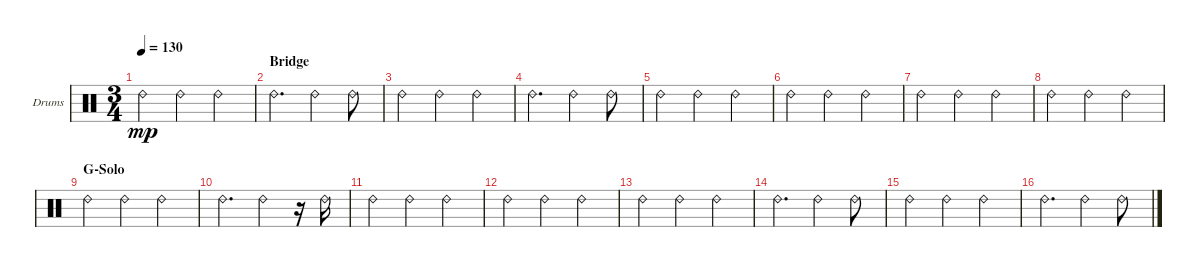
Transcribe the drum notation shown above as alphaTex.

\bracketExtendMode groupsimilarinstruments
\firstSystemTrackNameOrientation horizontal
\otherSystemsTrackNameOrientation horizontal
\track ("OH" "Drums") {instrument percussion}
\staff {score}
\articulation defaults
\ts (3 4)
\tempo 130
\clef neutral
\scale
0.37987
\ks c "Ride (bell) 2".4{dy mp} "Ride (bell) 2".4 "Ride (bell) 2".4
|
\section ("" "Bridge")
\scale
0.308442 "Ride (bell) 2".4{d} "Ride (bell) 2".4 "Ride (bell) 2".8 |
\scale
0.311688 "Ride (bell) 2".4 "Ride (bell) 2".4 "Ride (bell) 2".4 |
"Ride (bell) 2".4{d} "Ride (bell) 2".4 "Ride (bell) 2".8 |
"Ride (bell) 2".4 "Ride (bell) 2".4 "Ride (bell) 2".4 |
"Ride (bell) 2".4 "Ride (bell) 2".4 "Ride (bell) 2".4 |
"Ride (bell) 2".4 "Ride (bell) 2".4 "Ride (bell) 2".4 |
"Ride (bell) 2".4 "Ride (bell) 2".4 "Ride (bell) 2".4 |
\section ("" "G-Solo")
"Ride (bell) 2".4 "Ride (bell) 2".4 "Ride (bell) 2".4 |
"Ride (bell) 2".4{d} "Ride (bell) 2".4 r.16 "Ride (bell) 2".16 |
"Ride (bell) 2".4 "Ride (bell) 2".4 "Ride (bell) 2".4 |
"Ride (bell) 2".4 "Ride (bell) 2".4 "Ride (bell) 2".4 |
"Ride (bell) 2".4 "Ride (bell) 2".4 "Ride (bell) 2".4 |
"Ride (bell) 2".4{d} "Ride (bell) 2".4 "Ride (bell) 2".8 |
"Ride (bell) 2".4 "Ride (bell) 2".4 "Ride (bell) 2".4 |
"Ride (bell) 2".4{d} "Ride (bell) 2".4 "Ride (bell) 2".8
